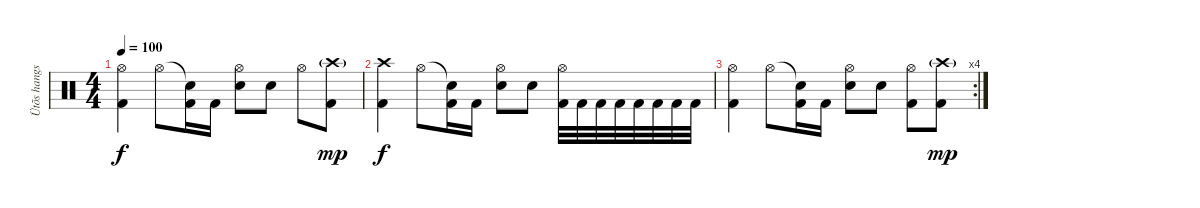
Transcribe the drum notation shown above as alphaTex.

\track ("Ütõs hangszer" "Ütõs hangs") {instrument percussion}
\staff {score}
\articulation defaults
\ts (4 4)
\tempo 100
\clef neutral
\ks c
("Hi-Hat (open)" "Kick (hit) 2").4{dy f} "Hi-Hat (open)".8 ("Snare (hit)"{t} "Kick (hit) 2").16 "Kick (hit) 2".16 ("Hi-Hat (open)" "Snare (hit) 2").8 "Snare (hit) 2".8 "Hi-Hat (open)".8 ("Crash high (hit)"{g} "Kick (hit) 2").8{dy mp} |
("Crash high (hit)" "Kick (hit) 2").4{dy f} "Hi-Hat (open)".8 ("Snare (hit)"{t} "Kick (hit) 2").16 "Kick (hit) 2".16 ("Hi-Hat (open)" "Snare (hit) 2").8 "Snare (hit) 2".8 ("Hi-Hat (open)" "Kick (hit) 2").32 "Kick (hit) 2".32 "Kick (hit) 2".32 "Kick (hit) 2".32 "Kick (hit) 2".32 "Kick (hit) 2".32 "Kick (hit) 2".32 "Kick (hit) 2".32 |
\rc 4
("Hi-Hat (open)" "Kick (hit) 2").4 "Hi-Hat (open)".8 ("Snare (hit)"{t} "Kick (hit) 2").16 "Kick (hit) 2".16 ("Hi-Hat (open)" "Snare (hit) 2").8 "Snare (hit) 2".8 ("Hi-Hat (open)" "Kick (hit) 2").8 ("Crash high (hit)"{g} "Kick (hit) 2").8{dy mp}
